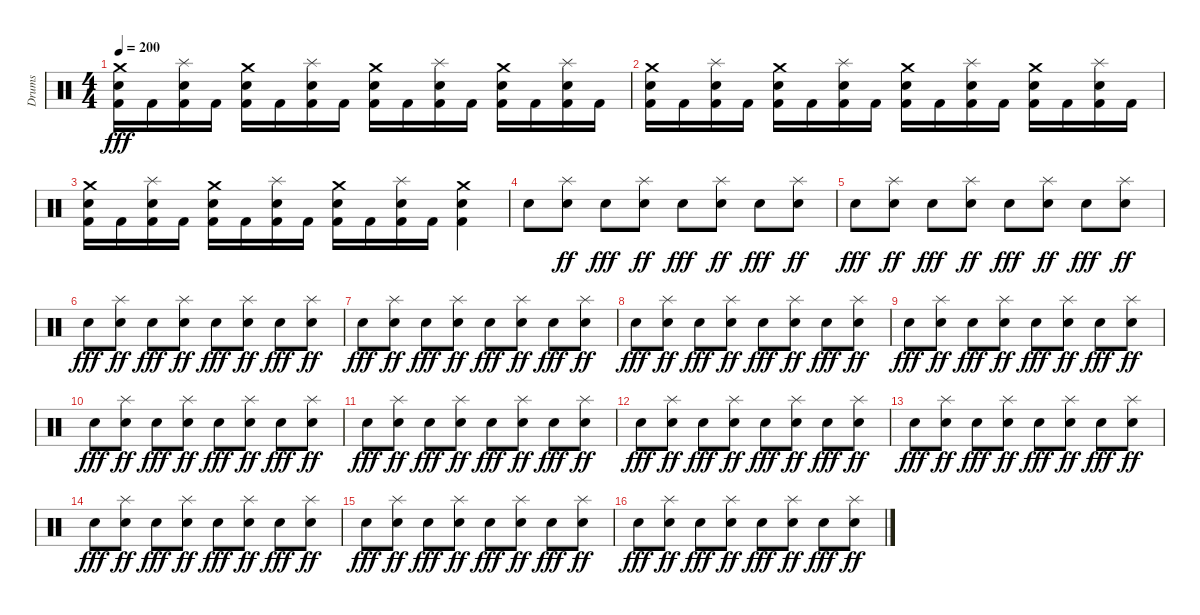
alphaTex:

\track ("Drums" "Drums") {instrument percussion}
\staff {score}
\articulation defaults
\ts (4 4)
\tempo 200
\clef neutral
\ks c
("Crash medium (hit)" "Electric Snare (hit)" "Kick (hit) 2").16{dy fff} "Kick (hit) 2".16 ("Splash (hit)" "Snare (hit) 2" "Kick (hit) 2").16 "Kick (hit) 2".16 ("Crash medium (hit)" "Electric Snare (hit)" "Kick (hit) 2").16 "Kick (hit) 2".16 ("Splash (hit)" "Snare (hit) 2" "Kick (hit) 2").16 "Kick (hit) 2".16 ("Crash medium (hit)" "Electric Snare (hit)" "Kick (hit) 2").16 "Kick (hit) 2".16 ("Splash (hit)" "Snare (hit) 2" "Kick (hit) 2").16 "Kick (hit) 2".16 ("Crash medium (hit)" "Electric Snare (hit)" "Kick (hit) 2").16 "Kick (hit) 2".16 ("Splash (hit)" "Snare (hit) 2" "Kick (hit) 2").16 "Kick (hit) 2".16 |
("Crash medium (hit)" "Electric Snare (hit)" "Kick (hit) 2").16 "Kick (hit) 2".16 ("Splash (hit)" "Snare (hit) 2" "Kick (hit) 2").16 "Kick (hit) 2".16 ("Crash medium (hit)" "Electric Snare (hit)" "Kick (hit) 2").16 "Kick (hit) 2".16 ("Splash (hit)" "Snare (hit) 2" "Kick (hit) 2").16 "Kick (hit) 2".16 ("Crash medium (hit)" "Electric Snare (hit)" "Kick (hit) 2").16 "Kick (hit) 2".16 ("Splash (hit)" "Snare (hit) 2" "Kick (hit) 2").16 "Kick (hit) 2".16 ("Crash medium (hit)" "Electric Snare (hit)" "Kick (hit) 2").16 "Kick (hit) 2".16 ("Splash (hit)" "Snare (hit) 2" "Kick (hit) 2").16 "Kick (hit) 2".16 |
("Crash medium (hit)" "Electric Snare (hit)" "Kick (hit) 2").16 "Kick (hit) 2".16 ("Splash (hit)" "Snare (hit) 2" "Kick (hit) 2").16 "Kick (hit) 2".16 ("Crash medium (hit)" "Electric Snare (hit)" "Kick (hit) 2").16 "Kick (hit) 2".16 ("Splash (hit)" "Snare (hit) 2" "Kick (hit) 2").16 "Kick (hit) 2".16 ("Crash medium (hit)" "Electric Snare (hit)" "Kick (hit) 2").16 "Kick (hit) 2".16 ("Splash (hit)" "Snare (hit) 2" "Kick (hit) 2").16 "Kick (hit) 2".16 ("Crash medium (hit)" "Electric Snare (hit)" "Kick (hit) 2").4 |
"Electric Snare (hit)".8 ("Snare (hit) 2" "Splash (hit)").8{dy ff} "Electric Snare (hit)".8{dy fff} ("Snare (hit) 2" "Splash (hit)").8{dy ff} "Electric Snare (hit)".8{dy fff} ("Snare (hit) 2" "Splash (hit)").8{dy ff} "Electric Snare (hit)".8{dy fff} ("Snare (hit) 2" "Splash (hit)").8{dy ff} |
"Electric Snare (hit)".8{dy fff} ("Snare (hit) 2" "Splash (hit)").8{dy ff} "Electric Snare (hit)".8{dy fff} ("Snare (hit) 2" "Splash (hit)").8{dy ff} "Electric Snare (hit)".8{dy fff} ("Snare (hit) 2" "Splash (hit)").8{dy ff} "Electric Snare (hit)".8{dy fff} ("Snare (hit) 2" "Splash (hit)").8{dy ff} |
"Electric Snare (hit)".8{dy fff} ("Snare (hit) 2" "Splash (hit)").8{dy ff} "Electric Snare (hit)".8{dy fff} ("Snare (hit) 2" "Splash (hit)").8{dy ff} "Electric Snare (hit)".8{dy fff} ("Snare (hit) 2" "Splash (hit)").8{dy ff} "Electric Snare (hit)".8{dy fff} ("Snare (hit) 2" "Splash (hit)").8{dy ff} |
"Electric Snare (hit)".8{dy fff} ("Snare (hit) 2" "Splash (hit)").8{dy ff} "Electric Snare (hit)".8{dy fff} ("Snare (hit) 2" "Splash (hit)").8{dy ff} "Electric Snare (hit)".8{dy fff} ("Snare (hit) 2" "Splash (hit)").8{dy ff} "Electric Snare (hit)".8{dy fff} ("Snare (hit) 2" "Splash (hit)").8{dy ff} |
"Electric Snare (hit)".8{dy fff} ("Snare (hit) 2" "Splash (hit)").8{dy ff} "Electric Snare (hit)".8{dy fff} ("Snare (hit) 2" "Splash (hit)").8{dy ff} "Electric Snare (hit)".8{dy fff} ("Snare (hit) 2" "Splash (hit)").8{dy ff} "Electric Snare (hit)".8{dy fff} ("Snare (hit) 2" "Splash (hit)").8{dy ff} |
"Electric Snare (hit)".8{dy fff} ("Snare (hit) 2" "Splash (hit)").8{dy ff} "Electric Snare (hit)".8{dy fff} ("Snare (hit) 2" "Splash (hit)").8{dy ff} "Electric Snare (hit)".8{dy fff} ("Snare (hit) 2" "Splash (hit)").8{dy ff} "Electric Snare (hit)".8{dy fff} ("Snare (hit) 2" "Splash (hit)").8{dy ff} |
"Electric Snare (hit)".8{dy fff} ("Snare (hit) 2" "Splash (hit)").8{dy ff} "Electric Snare (hit)".8{dy fff} ("Snare (hit) 2" "Splash (hit)").8{dy ff} "Electric Snare (hit)".8{dy fff} ("Snare (hit) 2" "Splash (hit)").8{dy ff} "Electric Snare (hit)".8{dy fff} ("Snare (hit) 2" "Splash (hit)").8{dy ff} |
"Electric Snare (hit)".8{dy fff} ("Snare (hit) 2" "Splash (hit)").8{dy ff} "Electric Snare (hit)".8{dy fff} ("Snare (hit) 2" "Splash (hit)").8{dy ff} "Electric Snare (hit)".8{dy fff} ("Snare (hit) 2" "Splash (hit)").8{dy ff} "Electric Snare (hit)".8{dy fff} ("Snare (hit) 2" "Splash (hit)").8{dy ff} |
"Electric Snare (hit)".8{dy fff} ("Snare (hit) 2" "Splash (hit)").8{dy ff} "Electric Snare (hit)".8{dy fff} ("Snare (hit) 2" "Splash (hit)").8{dy ff} "Electric Snare (hit)".8{dy fff} ("Snare (hit) 2" "Splash (hit)").8{dy ff} "Electric Snare (hit)".8{dy fff} ("Snare (hit) 2" "Splash (hit)").8{dy ff} |
"Electric Snare (hit)".8{dy fff} ("Snare (hit) 2" "Splash (hit)").8{dy ff} "Electric Snare (hit)".8{dy fff} ("Snare (hit) 2" "Splash (hit)").8{dy ff} "Electric Snare (hit)".8{dy fff} ("Snare (hit) 2" "Splash (hit)").8{dy ff} "Electric Snare (hit)".8{dy fff} ("Snare (hit) 2" "Splash (hit)").8{dy ff} |
"Electric Snare (hit)".8{dy fff} ("Snare (hit) 2" "Splash (hit)").8{dy ff} "Electric Snare (hit)".8{dy fff} ("Snare (hit) 2" "Splash (hit)").8{dy ff} "Electric Snare (hit)".8{dy fff} ("Snare (hit) 2" "Splash (hit)").8{dy ff} "Electric Snare (hit)".8{dy fff} ("Snare (hit) 2" "Splash (hit)").8{dy ff} |
"Electric Snare (hit)".8{dy fff} ("Snare (hit) 2" "Splash (hit)").8{dy ff} "Electric Snare (hit)".8{dy fff} ("Snare (hit) 2" "Splash (hit)").8{dy ff} "Electric Snare (hit)".8{dy fff} ("Snare (hit) 2" "Splash (hit)").8{dy ff} "Electric Snare (hit)".8{dy fff} ("Snare (hit) 2" "Splash (hit)").8{dy ff} |
"Electric Snare (hit)".8{dy fff} ("Snare (hit) 2" "Splash (hit)").8{dy ff} "Electric Snare (hit)".8{dy fff} ("Snare (hit) 2" "Splash (hit)").8{dy ff} "Electric Snare (hit)".8{dy fff} ("Snare (hit) 2" "Splash (hit)").8{dy ff} "Electric Snare (hit)".8{dy fff} ("Snare (hit) 2" "Splash (hit)").8{dy ff}
